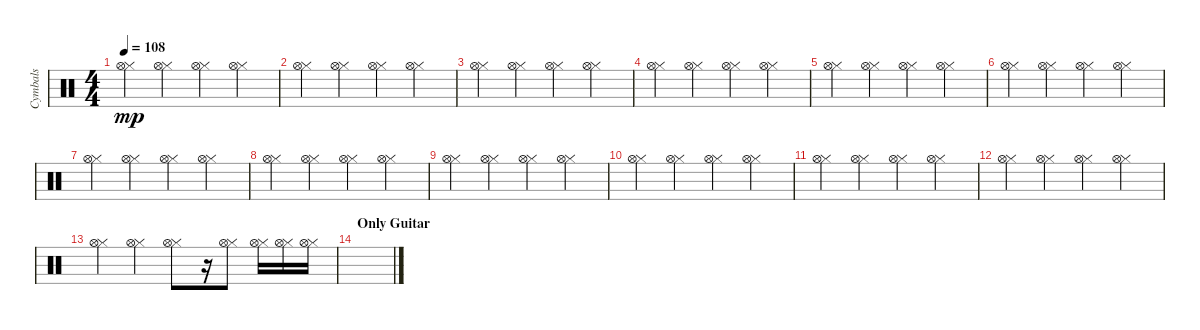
\track ("Cymbals" "Cymbals") {instrument percussion}
\staff {score}
\articulation defaults
\ts (4 4)
\tempo 108
\clef neutral
\ks c
("Hi-Hat (closed)" "Hi-Hat (open)").4{dy mp} ("Hi-Hat (closed)" "Hi-Hat (open)").4 ("Hi-Hat (closed)" "Hi-Hat (open)").4 ("Hi-Hat (closed)" "Hi-Hat (open)").4 |
("Hi-Hat (closed)" "Hi-Hat (open)").4 ("Hi-Hat (closed)" "Hi-Hat (open)").4 ("Hi-Hat (closed)" "Hi-Hat (open)").4 ("Hi-Hat (closed)" "Hi-Hat (open)").4 |
("Hi-Hat (closed)" "Hi-Hat (open)").4 ("Hi-Hat (closed)" "Hi-Hat (open)").4 ("Hi-Hat (closed)" "Hi-Hat (open)").4 ("Hi-Hat (closed)" "Hi-Hat (open)").4 |
("Hi-Hat (closed)" "Hi-Hat (open)").4 ("Hi-Hat (closed)" "Hi-Hat (open)").4 ("Hi-Hat (closed)" "Hi-Hat (open)").4 ("Hi-Hat (closed)" "Hi-Hat (open)").4 |
("Hi-Hat (closed)" "Hi-Hat (open)").4 ("Hi-Hat (closed)" "Hi-Hat (open)").4 ("Hi-Hat (closed)" "Hi-Hat (open)").4 ("Hi-Hat (closed)" "Hi-Hat (open)").4 |
("Hi-Hat (closed)" "Hi-Hat (open)").4 ("Hi-Hat (closed)" "Hi-Hat (open)").4 ("Hi-Hat (closed)" "Hi-Hat (open)").4 ("Hi-Hat (closed)" "Hi-Hat (open)").4 |
("Hi-Hat (closed)" "Hi-Hat (open)").4 ("Hi-Hat (closed)" "Hi-Hat (open)").4 ("Hi-Hat (closed)" "Hi-Hat (open)").4 ("Hi-Hat (closed)" "Hi-Hat (open)").4 |
("Hi-Hat (closed)" "Hi-Hat (open)").4 ("Hi-Hat (closed)" "Hi-Hat (open)").4 ("Hi-Hat (closed)" "Hi-Hat (open)").4 ("Hi-Hat (closed)" "Hi-Hat (open)").4 |
("Hi-Hat (closed)" "Hi-Hat (open)").4 ("Hi-Hat (closed)" "Hi-Hat (open)").4 ("Hi-Hat (closed)" "Hi-Hat (open)").4 ("Hi-Hat (closed)" "Hi-Hat (open)").4 |
("Hi-Hat (closed)" "Hi-Hat (open)").4 ("Hi-Hat (closed)" "Hi-Hat (open)").4 ("Hi-Hat (closed)" "Hi-Hat (open)").4 ("Hi-Hat (closed)" "Hi-Hat (open)").4 |
("Hi-Hat (closed)" "Hi-Hat (open)").4 ("Hi-Hat (closed)" "Hi-Hat (open)").4 ("Hi-Hat (closed)" "Hi-Hat (open)").4 ("Hi-Hat (closed)" "Hi-Hat (open)").4 |
("Hi-Hat (closed)" "Hi-Hat (open)").4 ("Hi-Hat (closed)" "Hi-Hat (open)").4 ("Hi-Hat (closed)" "Hi-Hat (open)").4 ("Hi-Hat (closed)" "Hi-Hat (open)").4 |
("Hi-Hat (closed)" "Hi-Hat (open)").4 ("Hi-Hat (closed)" "Hi-Hat (open)").4 ("Hi-Hat (closed)" "Hi-Hat (open)").8 r.16 ("Hi-Hat (closed)" "Hi-Hat (open)").8 ("Hi-Hat (closed)" "Hi-Hat (open)").16 ("Hi-Hat (closed)" "Hi-Hat (open)").16 ("Hi-Hat (closed)" "Hi-Hat (open)").16 |
\section ("" "Only Guitar")
